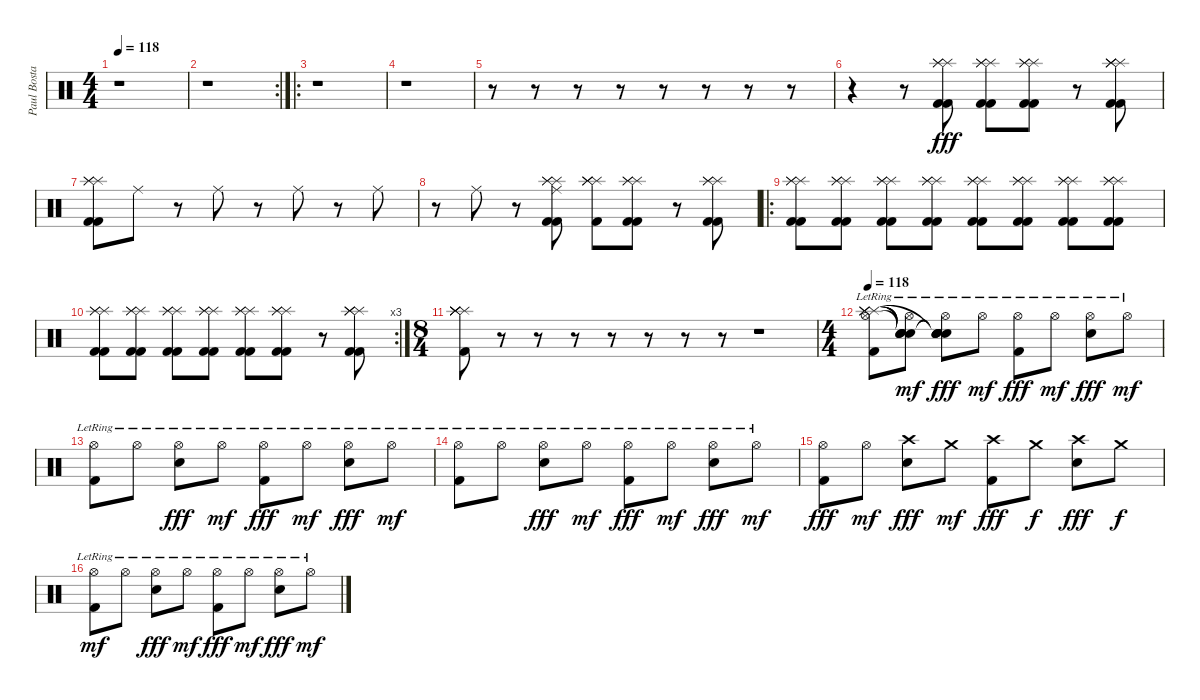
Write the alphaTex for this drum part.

\track ("Paul Bostaph" "Paul Bosta") {instrument percussion}
\staff {score}
\articulation defaults
\ts (4 4)
\tempo 118
\clef neutral
\ks c
r.1{dy fff} |
\rc 2
r.1 |
\ro
r.1 |
r.1 |
r.8 r.8 r.8 r.8 r.8 r.8 r.8 r.8 |
r.4 r.8 ("Splash (hit)" "Splash (hit)" "Splash (hit)" "Kick (hit) 2" "Kick (hit) 2").8 ("Splash (hit)" "Splash (hit)" "Splash (hit)" "Kick (hit) 2" "Kick (hit) 2").8 ("Splash (hit)" "Splash (hit)" "Splash (hit)" "Kick (hit) 2" "Kick (hit) 2").8 r.8 ("Splash (hit)" "Splash (hit)" "Splash (hit)" "Splash (hit)" "Kick (hit) 2" "Kick (hit) 2").8 |
("Splash (hit)" "Splash (hit)" "Splash (hit)" "Kick (hit) 2" "Kick (hit) 2").8 "Ride (middle)".8 r.8 "Ride (middle)".8 r.8 "Ride (middle)".8 r.8 "Ride (middle)".8 |
r.8 "Ride (middle)".8 r.8 ("Ride (middle)" "Splash (hit)" "Splash (hit)" "Splash (hit)" "Kick (hit) 2" "Kick (hit) 2").8 ("Splash (hit)" "Splash (hit)" "Splash (hit)" "Splash (hit)" "Kick (hit) 2").8 ("Splash (hit)" "Splash (hit)" "Splash (hit)" "Kick (hit) 2" "Kick (hit) 2").8 r.8 ("Splash (hit)" "Splash (hit)" "Splash (hit)" "Kick (hit) 2" "Kick (hit) 2").8 |
\ro
("Splash (hit)" "Splash (hit)" "Splash (hit)" "Kick (hit) 2" "Kick (hit) 2").8 ("Splash (hit)" "Splash (hit)" "Splash (hit)" "Kick (hit) 2" "Kick (hit) 2").8 ("Splash (hit)" "Splash (hit)" "Splash (hit)" "Kick (hit) 2" "Kick (hit) 2").8 ("Splash (hit)" "Splash (hit)" "Splash (hit)" "Kick (hit) 2" "Kick (hit) 2").8 ("Splash (hit)" "Splash (hit)" "Splash (hit)" "Kick (hit) 2" "Kick (hit) 2").8 ("Splash (hit)" "Splash (hit)" "Splash (hit)" "Kick (hit) 2" "Kick (hit) 2").8 ("Splash (hit)" "Splash (hit)" "Splash (hit)" "Kick (hit) 2" "Kick (hit) 2").8 ("Splash (hit)" "Splash (hit)" "Splash (hit)" "Kick (hit) 2" "Kick (hit) 2").8 |
\rc 3
("Splash (hit)" "Splash (hit)" "Splash (hit)" "Kick (hit) 2" "Kick (hit) 2").8 ("Splash (hit)" "Splash (hit)" "Splash (hit)" "Kick (hit) 2" "Kick (hit) 2").8 ("Splash (hit)" "Splash (hit)" "Splash (hit)" "Kick (hit) 2" "Kick (hit) 2").8 ("Splash (hit)" "Splash (hit)" "Splash (hit)" "Kick (hit) 2" "Kick (hit) 2").8 ("Splash (hit)" "Splash (hit)" "Splash (hit)" "Kick (hit) 2" "Kick (hit) 2").8 ("Splash (hit)" "Splash (hit)" "Splash (hit)" "Kick (hit) 2" "Kick (hit) 2").8 r.8 ("Splash (hit)" "Splash (hit)" "Splash (hit)" "Splash (hit)" "Kick (hit) 2" "Kick (hit) 2").8 |
\ts (8 4)
("Splash (hit)" "Splash (hit)" "Splash (hit)" "Splash (hit)" "Splash (hit)" "Kick (hit) 2").8 r.8 r.8 r.8 r.8 r.8 r.8 r.8 r.1 |
\ts (4 4)
\tempo 118
("Splash (hit)" "Splash (hit)" "Splash (hit)" "Kick (hit) 2" "Hi-Hat (open)"{lr} "Splash (hit)").8 ("Snare (hit)"{t} "Snare (hit)"{t} "Snare (hit)"{t} "Hi-Hat (open)"{lr} "Snare (hit)"{t}).8{dy mf} ("Snare (hit)"{t} "Snare (hit)"{t} "Snare (hit)"{t} "Hi-Hat (open)"{lr} "Snare (hit) 2" "Snare (hit)"{t}).8{dy fff} "Hi-Hat (open)"{lr}.8{dy mf} ("Hi-Hat (open)"{lr} "Kick (hit) 2").8{dy fff} "Hi-Hat (open)"{lr}.8{dy mf} ("Hi-Hat (open)"{lr} "Snare (hit) 2").8{dy fff} "Hi-Hat (open)"{lr}.8{dy mf} |
("Kick (hit) 2" "Hi-Hat (open)"{lr}).8 "Hi-Hat (open)"{lr}.8 ("Hi-Hat (open)"{lr} "Snare (hit) 2").8{dy fff} "Hi-Hat (open)"{lr}.8{dy mf} ("Hi-Hat (open)"{lr} "Kick (hit) 2").8{dy fff} "Hi-Hat (open)"{lr}.8{dy mf} ("Hi-Hat (open)"{lr} "Snare (hit) 2").8{dy fff} "Hi-Hat (open)"{lr}.8{dy mf} |
("Kick (hit) 2" "Hi-Hat (open)"{lr}).8 "Hi-Hat (open)"{lr}.8 ("Hi-Hat (open)"{lr} "Snare (hit) 2").8{dy fff} "Hi-Hat (open)"{lr}.8{dy mf} ("Hi-Hat (open)"{lr} "Kick (hit) 2").8{dy fff} "Hi-Hat (open)"{lr}.8{dy mf} ("Hi-Hat (open)"{lr} "Snare (hit) 2").8{dy fff} "Hi-Hat (open)"{lr}.8{dy mf} |
("Hi-Hat (open)" "Kick (hit) 2").8{dy fff} "Hi-Hat (open)".8{dy mf} ("Crash high (hit)" "Snare (hit) 2").8{dy fff} "Crash medium (hit)".8{dy mf} ("Crash high (hit)" "Kick (hit) 2").8{dy fff} "Crash medium (hit)".8{dy f} ("Crash high (hit)" "Snare (hit) 2").8{dy fff} "Crash medium (hit)".8{dy f} |
("Kick (hit) 2" "Hi-Hat (open)"{lr}).8{dy mf} "Hi-Hat (open)"{lr}.8 ("Hi-Hat (open)"{lr} "Snare (hit) 2").8{dy fff} "Hi-Hat (open)"{lr}.8{dy mf} ("Hi-Hat (open)"{lr} "Kick (hit) 2").8{dy fff} "Hi-Hat (open)"{lr}.8{dy mf} ("Hi-Hat (open)"{lr} "Snare (hit) 2").8{dy fff} "Hi-Hat (open)"{lr}.8{dy mf}
